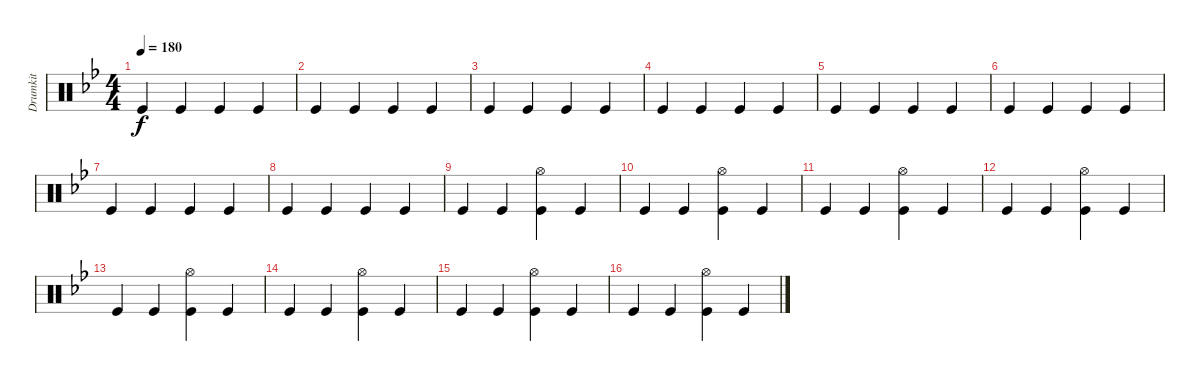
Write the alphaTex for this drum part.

\track ("Drumkit" "Drumkit") {instrument percussion}
\staff {score}
\articulation defaults
\ts (4 4)
\tempo 180
\clef neutral
\ks bb "Kick (hit)".4{dy f} "Kick (hit)".4 "Kick (hit)".4 "Kick (hit)".4
|
"Kick (hit)".4 "Kick (hit)".4 "Kick (hit)".4 "Kick (hit)".4 |
"Kick (hit)".4 "Kick (hit)".4 "Kick (hit)".4 "Kick (hit)".4 |
"Kick (hit)".4 "Kick (hit)".4 "Kick (hit)".4 "Kick (hit)".4 |
"Kick (hit)".4 "Kick (hit)".4 "Kick (hit)".4 "Kick (hit)".4 |
"Kick (hit)".4 "Kick (hit)".4 "Kick (hit)".4 "Kick (hit)".4 |
"Kick (hit)".4 "Kick (hit)".4 "Kick (hit)".4 "Kick (hit)".4 |
"Kick (hit)".4 "Kick (hit)".4 "Kick (hit)".4 "Kick (hit)".4 |
"Kick (hit)".4 "Kick (hit)".4 ("Hi-Hat (open)" "Kick (hit)").4 "Kick (hit)".4 |
"Kick (hit)".4 "Kick (hit)".4 ("Hi-Hat (open)" "Kick (hit)").4 "Kick (hit)".4 |
"Kick (hit)".4 "Kick (hit)".4 ("Hi-Hat (open)" "Kick (hit)").4 "Kick (hit)".4 |
"Kick (hit)".4 "Kick (hit)".4 ("Hi-Hat (open)" "Kick (hit)").4 "Kick (hit)".4 |
"Kick (hit)".4 "Kick (hit)".4 ("Hi-Hat (open)" "Kick (hit)").4 "Kick (hit)".4 |
"Kick (hit)".4 "Kick (hit)".4 ("Hi-Hat (open)" "Kick (hit)").4 "Kick (hit)".4 |
"Kick (hit)".4 "Kick (hit)".4 ("Hi-Hat (open)" "Kick (hit)").4 "Kick (hit)".4 |
"Kick (hit)".4 "Kick (hit)".4 ("Hi-Hat (open)" "Kick (hit)").4 "Kick (hit)".4
